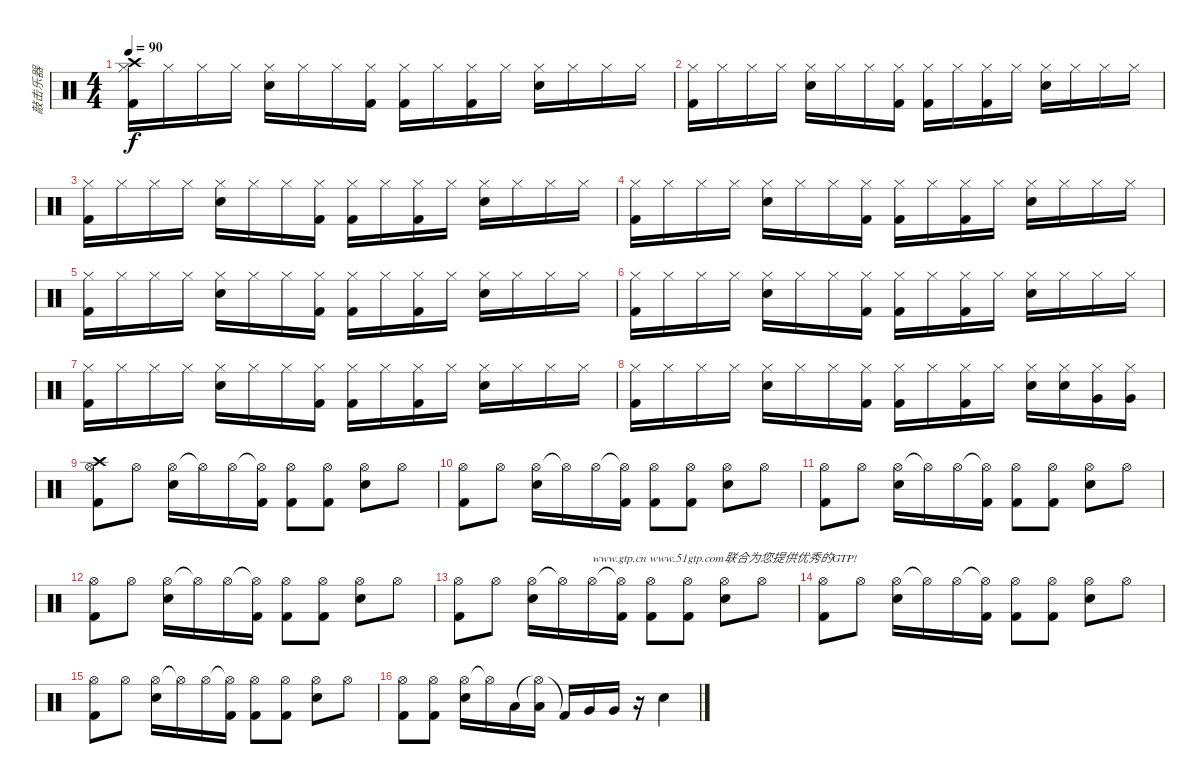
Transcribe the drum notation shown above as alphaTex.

\track ("敲击乐器" "敲击乐器") {instrument percussion}
\staff {score}
\articulation defaults
\ts (4 4)
\tempo 90
\clef neutral
\ks c
("Hi-Hat (closed)" "Kick (hit) 2" "Crash high (hit)").16{dy f} "Hi-Hat (closed)".16 "Hi-Hat (closed)".16 "Hi-Hat (closed)".16 ("Hi-Hat (closed)" "Electric Snare (hit)").16 "Hi-Hat (closed)".16 "Hi-Hat (closed)".16 ("Hi-Hat (closed)" "Kick (hit) 2").16 ("Hi-Hat (closed)" "Kick (hit) 2").16 "Hi-Hat (closed)".16 ("Hi-Hat (closed)" "Kick (hit) 2").16 "Hi-Hat (closed)".16 ("Hi-Hat (closed)" "Electric Snare (hit)").16 "Hi-Hat (closed)".16 "Hi-Hat (closed)".16 "Hi-Hat (closed)".16 |
("Hi-Hat (closed)" "Kick (hit) 2").16 "Hi-Hat (closed)".16 "Hi-Hat (closed)".16 "Hi-Hat (closed)".16 ("Hi-Hat (closed)" "Electric Snare (hit)").16 "Hi-Hat (closed)".16 "Hi-Hat (closed)".16 ("Hi-Hat (closed)" "Kick (hit) 2").16 ("Hi-Hat (closed)" "Kick (hit) 2").16 "Hi-Hat (closed)".16 ("Hi-Hat (closed)" "Kick (hit) 2").16 "Hi-Hat (closed)".16 ("Hi-Hat (closed)" "Electric Snare (hit)").16 "Hi-Hat (closed)".16 "Hi-Hat (closed)".16 "Hi-Hat (closed)".16 |
("Hi-Hat (closed)" "Kick (hit) 2").16 "Hi-Hat (closed)".16 "Hi-Hat (closed)".16 "Hi-Hat (closed)".16 ("Hi-Hat (closed)" "Electric Snare (hit)").16 "Hi-Hat (closed)".16 "Hi-Hat (closed)".16 ("Hi-Hat (closed)" "Kick (hit) 2").16 ("Hi-Hat (closed)" "Kick (hit) 2").16 "Hi-Hat (closed)".16 ("Hi-Hat (closed)" "Kick (hit) 2").16 "Hi-Hat (closed)".16 ("Hi-Hat (closed)" "Electric Snare (hit)").16 "Hi-Hat (closed)".16 "Hi-Hat (closed)".16 "Hi-Hat (closed)".16 |
("Hi-Hat (closed)" "Kick (hit) 2").16 "Hi-Hat (closed)".16 "Hi-Hat (closed)".16 "Hi-Hat (closed)".16 ("Hi-Hat (closed)" "Electric Snare (hit)").16 "Hi-Hat (closed)".16 "Hi-Hat (closed)".16 ("Hi-Hat (closed)" "Kick (hit) 2").16 ("Hi-Hat (closed)" "Kick (hit) 2").16 "Hi-Hat (closed)".16 ("Hi-Hat (closed)" "Kick (hit) 2").16 "Hi-Hat (closed)".16 ("Hi-Hat (closed)" "Electric Snare (hit)").16 "Hi-Hat (closed)".16 "Hi-Hat (closed)".16 "Hi-Hat (closed)".16 |
("Hi-Hat (closed)" "Kick (hit) 2").16 "Hi-Hat (closed)".16 "Hi-Hat (closed)".16 "Hi-Hat (closed)".16 ("Hi-Hat (closed)" "Electric Snare (hit)").16 "Hi-Hat (closed)".16 "Hi-Hat (closed)".16 ("Hi-Hat (closed)" "Kick (hit) 2").16 ("Hi-Hat (closed)" "Kick (hit) 2").16 "Hi-Hat (closed)".16 ("Hi-Hat (closed)" "Kick (hit) 2").16 "Hi-Hat (closed)".16 ("Hi-Hat (closed)" "Electric Snare (hit)").16 "Hi-Hat (closed)".16 "Hi-Hat (closed)".16 "Hi-Hat (closed)".16 |
("Hi-Hat (closed)" "Kick (hit) 2").16 "Hi-Hat (closed)".16 "Hi-Hat (closed)".16 "Hi-Hat (closed)".16 ("Hi-Hat (closed)" "Electric Snare (hit)").16 "Hi-Hat (closed)".16 "Hi-Hat (closed)".16 ("Hi-Hat (closed)" "Kick (hit) 2").16 ("Hi-Hat (closed)" "Kick (hit) 2").16 "Hi-Hat (closed)".16 ("Hi-Hat (closed)" "Kick (hit) 2").16 "Hi-Hat (closed)".16 ("Hi-Hat (closed)" "Electric Snare (hit)").16 "Hi-Hat (closed)".16 "Hi-Hat (closed)".16 "Hi-Hat (closed)".16 |
("Hi-Hat (closed)" "Kick (hit) 2").16 "Hi-Hat (closed)".16 "Hi-Hat (closed)".16 "Hi-Hat (closed)".16 ("Hi-Hat (closed)" "Electric Snare (hit)").16 "Hi-Hat (closed)".16 "Hi-Hat (closed)".16 ("Hi-Hat (closed)" "Kick (hit) 2").16 ("Hi-Hat (closed)" "Kick (hit) 2").16 "Hi-Hat (closed)".16 ("Hi-Hat (closed)" "Kick (hit) 2").16 "Hi-Hat (closed)".16 ("Hi-Hat (closed)" "Electric Snare (hit)").16 "Hi-Hat (closed)".16 "Hi-Hat (closed)".16 "Hi-Hat (closed)".16 |
("Hi-Hat (closed)" "Kick (hit) 2").16 "Hi-Hat (closed)".16 "Hi-Hat (closed)".16 "Hi-Hat (closed)".16 ("Hi-Hat (closed)" "Electric Snare (hit)").16 "Hi-Hat (closed)".16 "Hi-Hat (closed)".16 ("Hi-Hat (closed)" "Kick (hit) 2").16 ("Hi-Hat (closed)" "Kick (hit) 2").16 "Hi-Hat (closed)".16 ("Hi-Hat (closed)" "Kick (hit) 2").16 "Hi-Hat (closed)".16 ("Hi-Hat (closed)" "Electric Snare (hit)").16 ("Hi-Hat (closed)" "Electric Snare (hit)").16 ("Hi-Hat (closed)" "Very Low Tom (hit)").16 ("Hi-Hat (closed)" "Very Low Tom (hit)").16 |
("Hi-Hat (open)" "Kick (hit) 2" "Crash high (hit)").8 "Hi-Hat (open)".8 ("Hi-Hat (open)" "Electric Snare (hit)").16 "Hi-Hat (open)"{t}.16 "Hi-Hat (open)".16 ("Hi-Hat (open)"{t} "Kick (hit) 2").16 ("Hi-Hat (open)" "Kick (hit) 2").8 ("Hi-Hat (open)" "Kick (hit) 2").8 ("Hi-Hat (open)" "Electric Snare (hit)").8 "Hi-Hat (open)".8 |
("Hi-Hat (open)" "Kick (hit) 2").8 "Hi-Hat (open)".8 ("Hi-Hat (open)" "Electric Snare (hit)").16 "Hi-Hat (open)"{t}.16 "Hi-Hat (open)".16 ("Hi-Hat (open)"{t} "Kick (hit) 2").16 ("Hi-Hat (open)" "Kick (hit) 2").8 ("Hi-Hat (open)" "Kick (hit) 2").8 ("Hi-Hat (open)" "Electric Snare (hit)").8 "Hi-Hat (open)".8 |
("Hi-Hat (open)" "Kick (hit) 2").8 "Hi-Hat (open)".8 ("Hi-Hat (open)" "Electric Snare (hit)").16 "Hi-Hat (open)"{t}.16 "Hi-Hat (open)".16 ("Hi-Hat (open)"{t} "Kick (hit) 2").16 ("Hi-Hat (open)" "Kick (hit) 2").8 ("Hi-Hat (open)" "Kick (hit) 2").8 ("Hi-Hat (open)" "Electric Snare (hit)").8 "Hi-Hat (open)".8 |
("Hi-Hat (open)" "Kick (hit) 2").8 "Hi-Hat (open)".8 ("Hi-Hat (open)" "Electric Snare (hit)").16 "Hi-Hat (open)"{t}.16 "Hi-Hat (open)".16 ("Hi-Hat (open)"{t} "Kick (hit) 2").16 ("Hi-Hat (open)" "Kick (hit) 2").8 ("Hi-Hat (open)" "Kick (hit) 2").8 ("Hi-Hat (open)" "Electric Snare (hit)").8 "Hi-Hat (open)".8 |
("Hi-Hat (open)" "Kick (hit) 2").8 "Hi-Hat (open)".8 ("Hi-Hat (open)" "Electric Snare (hit)").16 "Hi-Hat (open)"{t}.16 "Hi-Hat (open)".16{txt "www.gtp.cn www.51gtp.com联合为您提供优秀的GTP!"} ("Hi-Hat (open)"{t} "Kick (hit) 2").16 ("Hi-Hat (open)" "Kick (hit) 2").8 ("Hi-Hat (open)" "Kick (hit) 2").8 ("Hi-Hat (open)" "Electric Snare (hit)").8 "Hi-Hat (open)".8 |
("Hi-Hat (open)" "Kick (hit) 2").8 "Hi-Hat (open)".8 ("Hi-Hat (open)" "Electric Snare (hit)").16 "Hi-Hat (open)"{t}.16 "Hi-Hat (open)".16 ("Hi-Hat (open)"{t} "Kick (hit) 2").16 ("Hi-Hat (open)" "Kick (hit) 2").8 ("Hi-Hat (open)" "Kick (hit) 2").8 ("Hi-Hat (open)" "Electric Snare (hit)").8 "Hi-Hat (open)".8 |
("Hi-Hat (open)" "Kick (hit) 2").8 "Hi-Hat (open)".8 ("Hi-Hat (open)" "Electric Snare (hit)").16 "Hi-Hat (open)"{t}.16 "Hi-Hat (open)".16 ("Hi-Hat (open)"{t} "Kick (hit) 2").16 ("Hi-Hat (open)" "Kick (hit) 2").8 ("Hi-Hat (open)" "Kick (hit) 2").8 ("Hi-Hat (open)" "Electric Snare (hit)").8 "Hi-Hat (open)".8 |
("Hi-Hat (open)" "Kick (hit) 2").8 ("Hi-Hat (open)" "Kick (hit) 2").8 ("Hi-Hat (open)" "Electric Snare (hit)").16 "Hi-Hat (open)"{t}.16 "Low Tom (hit)".16 ("Hi-Hat (open)"{t} "Low Tom (hit)").16 "Kick (hit) 2"{t}.16 "Very Low Tom (hit)".16 "Very Low Tom (hit)".16 r.16 "Electric Snare (hit)".4
